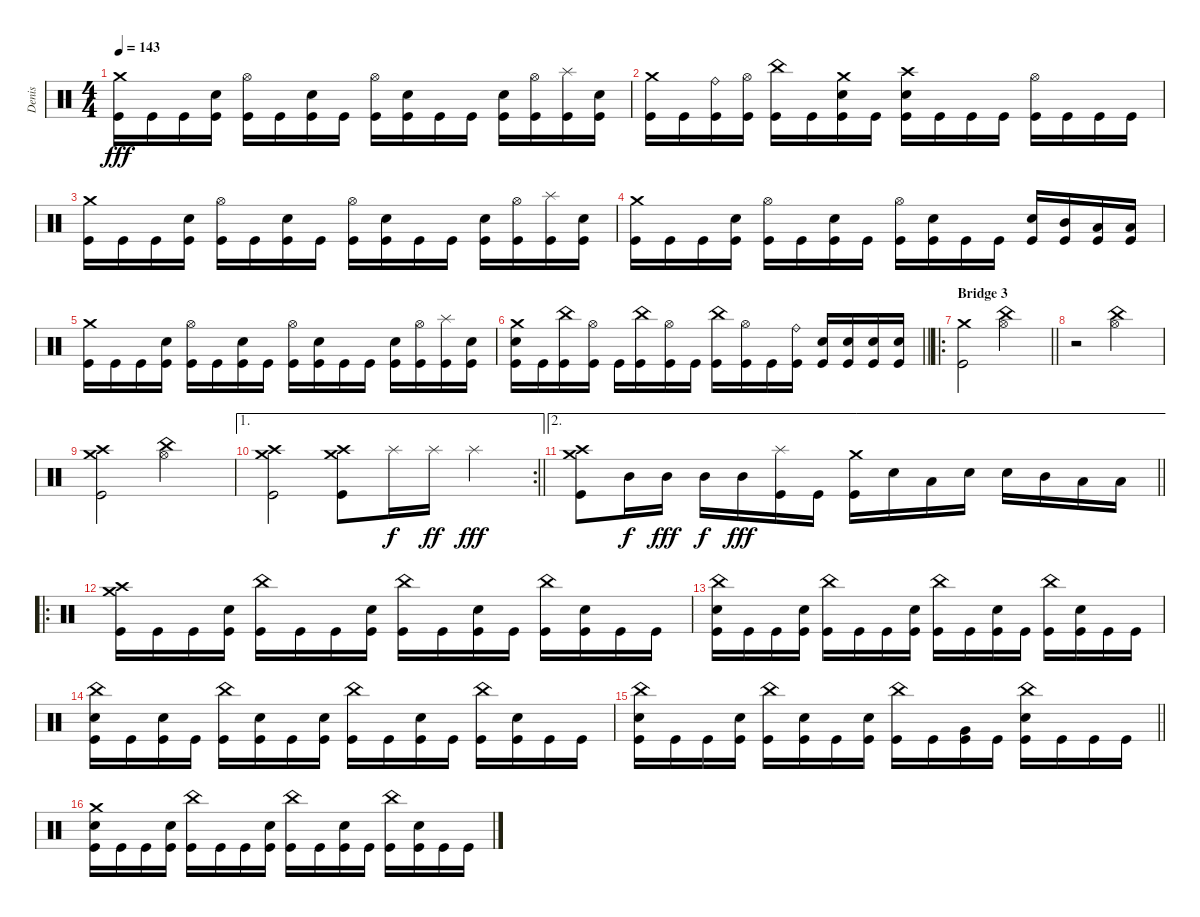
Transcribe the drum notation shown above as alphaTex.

\track ("Denis" "Denis") {instrument percussion}
\staff {score}
\articulation defaults
\ts (4 4)
\tempo 143
\clef neutral
\ks c
("Crash medium (hit)" "Kick (hit)").16{dy fff} "Kick (hit)".16 "Kick (hit)".16 ("Kick (hit)" "Electric Snare (hit)").16 ("Kick (hit)" "Hi-Hat (open)").16 "Kick (hit)".16 ("Kick (hit)" "Electric Snare (hit)").16 "Kick (hit)".16 ("Kick (hit)" "Hi-Hat (open)").16 ("Kick (hit)" "Electric Snare (hit)").16 "Kick (hit)".16 "Kick (hit)".16 ("Kick (hit)" "Electric Snare (hit)").16 ("Kick (hit)" "Hi-Hat (open)").16 ("Kick (hit)" "Splash (hit)").16 ("Kick (hit)" "Electric Snare (hit)").16 |
("Crash medium (hit)" "Kick (hit)").16 "Kick (hit)".16 ("Kick (hit)" "Ride (bell)").16 ("Kick (hit)" "Hi-Hat (open)").16 ("Kick (hit)" "China (hit)").16 "Kick (hit)".16 ("Kick (hit)" "Electric Snare (hit)" "Crash medium (hit)").16 "Kick (hit)".16 ("Kick (hit)" "Crash high (hit)" "Electric Snare (hit)").16 "Kick (hit)".16 "Kick (hit)".16 "Kick (hit)".16 ("Kick (hit)" "Hi-Hat (open)").16 "Kick (hit)".16 "Kick (hit)".16 "Kick (hit)".16 |
("Crash medium (hit)" "Kick (hit)").16 "Kick (hit)".16 "Kick (hit)".16 ("Kick (hit)" "Electric Snare (hit)").16 ("Kick (hit)" "Hi-Hat (open)").16 "Kick (hit)".16 ("Kick (hit)" "Electric Snare (hit)").16 "Kick (hit)".16 ("Kick (hit)" "Hi-Hat (open)").16 ("Kick (hit)" "Electric Snare (hit)").16 "Kick (hit)".16 "Kick (hit)".16 ("Kick (hit)" "Electric Snare (hit)").16 ("Kick (hit)" "Hi-Hat (open)").16 ("Kick (hit)" "Splash (hit)").16 ("Kick (hit)" "Electric Snare (hit)").16 |
("Crash medium (hit)" "Kick (hit)").16 "Kick (hit)".16 "Kick (hit)".16 ("Kick (hit)" "Electric Snare (hit)").16 ("Kick (hit)" "Hi-Hat (open)").16 "Kick (hit)".16 ("Kick (hit)" "Electric Snare (hit)").16 "Kick (hit)".16 ("Kick (hit)" "Hi-Hat (open)").16 ("Kick (hit)" "Electric Snare (hit)").16 "Kick (hit)".16 "Kick (hit)".16 ("Kick (hit)" "Electric Snare (hit)").16 ("Kick (hit)" "Mid Tom (hit)").16 ("Kick (hit)" "Low Tom (hit)").16 ("Kick (hit)" "Low Tom (hit)").16 |
("Crash medium (hit)" "Kick (hit)").16 "Kick (hit)".16 "Kick (hit)".16 ("Kick (hit)" "Electric Snare (hit)").16 ("Kick (hit)" "Hi-Hat (open)").16 "Kick (hit)".16 ("Kick (hit)" "Electric Snare (hit)").16 "Kick (hit)".16 ("Kick (hit)" "Hi-Hat (open)").16 ("Kick (hit)" "Electric Snare (hit)").16 "Kick (hit)".16 "Kick (hit)".16 ("Kick (hit)" "Electric Snare (hit)").16 ("Kick (hit)" "Hi-Hat (open)").16 ("Kick (hit)" "Splash (hit)").16 ("Kick (hit)" "Electric Snare (hit)").16 |
\barLineRight lightlight
("Crash medium (hit)" "Kick (hit)" "Electric Snare (hit)").16 "Kick (hit)".16 ("Kick (hit)" "China (hit)").16 ("Kick (hit)" "Hi-Hat (open)").16 "Kick (hit)".16 ("Kick (hit)" "China (hit)").16 ("Kick (hit)" "Hi-Hat (open)").16 "Kick (hit)".16 ("Kick (hit)" "China (hit)").16 ("Kick (hit)" "Hi-Hat (open)").16 "Kick (hit)".16 ("Kick (hit)" "Ride (bell)").16 ("Kick (hit)" "Electric Snare (hit)").16 ("Kick (hit)" "Electric Snare (hit)").16 ("Kick (hit)" "Electric Snare (hit)").16 ("Kick (hit)" "Electric Snare (hit)").16 |
\ro
\section ("" "Bridge 3")
\barLineRight lightlight
("Crash medium (hit)" "Kick (hit)").2 ("Hi-Hat (open)" "China (hit)").2 |
\section ("" "")
r.2 ("Hi-Hat (open)" "China (hit)").2 |
("Crash high (hit)" "Crash medium (hit)" "Kick (hit)").2 ("Hi-Hat (open)" "China (hit)").2 |
\ae 1
\rc 2
\barLineRight lightlight
("Crash high (hit)" "Crash medium (hit)" "Kick (hit)").2 ("Crash medium (hit)" "Crash high (hit)" "Kick (hit)").8 "Splash (hit)".16{dy f} "Splash (hit)".16{dy ff} "Splash (hit)".4{dy fff} |
\ae 2
\barLineRight lightlight
("Crash high (hit)" "Crash medium (hit)" "Kick (hit)").8 "Mid Tom (hit)".16{dy f} "Mid Tom (hit)".16{dy fff} "Mid Tom (hit)".16{dy f} "Mid Tom (hit)".16{dy fff} ("Kick (hit)" "Splash (hit)").16 "Kick (hit)".16 ("Kick (hit)" "Crash medium (hit)").16 "Electric Snare (hit)".16 "Low Tom (hit)".16 "Electric Snare (hit)".16 "Electric Snare (hit)".16 "Mid Tom (hit)".16 "Low Tom (hit)".16 "Low Tom (hit)".16 |
\ro
\section ("" "")
("Kick (hit)" "Crash medium (hit)" "Crash high (hit)").16 "Kick (hit)".16 "Kick (hit)".16 ("Kick (hit)" "Electric Snare (hit)").16 ("Kick (hit)" "China (hit)").16 "Kick (hit)".16 "Kick (hit)".16 ("Kick (hit)" "Electric Snare (hit)").16 ("Kick (hit)" "China (hit)").16 "Kick (hit)".16 ("Kick (hit)" "Electric Snare (hit)").16 "Kick (hit)".16 ("Kick (hit)" "China (hit)").16 ("Kick (hit)" "Electric Snare (hit)").16 "Kick (hit)".16 "Kick (hit)".16 |
("Kick (hit)" "China (hit)" "Electric Snare (hit)").16 "Kick (hit)".16 "Kick (hit)".16 ("Kick (hit)" "Electric Snare (hit)").16 ("Kick (hit)" "China (hit)").16 "Kick (hit)".16 "Kick (hit)".16 ("Kick (hit)" "Electric Snare (hit)").16 ("Kick (hit)" "China (hit)").16 "Kick (hit)".16 ("Kick (hit)" "Electric Snare (hit)").16 "Kick (hit)".16 ("Kick (hit)" "China (hit)").16 ("Kick (hit)" "Electric Snare (hit)").16 "Kick (hit)".16 "Kick (hit)".16 |
("Kick (hit)" "China (hit)" "Electric Snare (hit)").16 "Kick (hit)".16 ("Kick (hit)" "Electric Snare (hit)").16 "Kick (hit)".16 ("Kick (hit)" "China (hit)").16 ("Kick (hit)" "Electric Snare (hit)").16 "Kick (hit)".16 ("Kick (hit)" "Electric Snare (hit)").16 ("Kick (hit)" "China (hit)").16 "Kick (hit)".16 ("Kick (hit)" "Electric Snare (hit)").16 "Kick (hit)".16 ("Kick (hit)" "China (hit)").16 ("Kick (hit)" "Electric Snare (hit)").16 "Kick (hit)".16 "Kick (hit)".16 |
\barLineRight lightlight
("Kick (hit)" "Electric Snare (hit)" "China (hit)").16 "Kick (hit)".16 "Kick (hit)".16 ("Kick (hit)" "Electric Snare (hit)").16 ("Kick (hit)" "China (hit)").16 ("Kick (hit)" "Electric Snare (hit)").16 "Kick (hit)".16 ("Kick (hit)" "Electric Snare (hit)").16 ("Kick (hit)" "China (hit)").16 "Kick (hit)".16 ("Kick (hit)" "Very Low Tom (hit)").16 "Kick (hit)".16 ("Kick (hit)" "Electric Snare (hit)" "China (hit)").16 "Kick (hit)".16 "Kick (hit)".16 "Kick (hit)".16 |
("Kick (hit)" "Crash medium (hit)" "Electric Snare (hit)").16 "Kick (hit)".16 "Kick (hit)".16 ("Kick (hit)" "Electric Snare (hit)").16 ("Kick (hit)" "China (hit)").16 "Kick (hit)".16 "Kick (hit)".16 ("Kick (hit)" "Electric Snare (hit)").16 ("Kick (hit)" "China (hit)").16 "Kick (hit)".16 ("Kick (hit)" "Electric Snare (hit)").16 "Kick (hit)".16 ("Kick (hit)" "China (hit)").16 ("Kick (hit)" "Electric Snare (hit)").16 "Kick (hit)".16 "Kick (hit)".16
